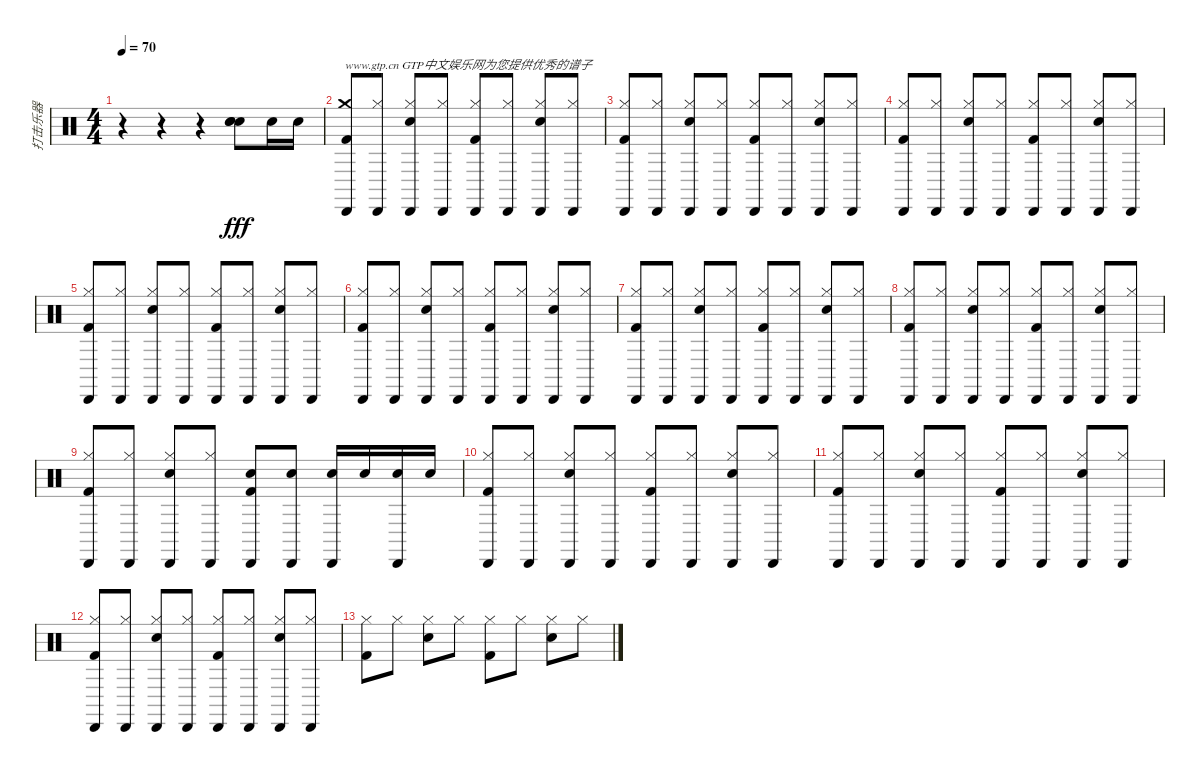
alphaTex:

\track ("打击乐器" "打击乐器") {instrument percussion}
\staff {score}
\articulation defaults
\ts (4 4)
\tempo 70
\clef neutral
\ks c
r.4{dy fff} r.4 r.4 ("Electric Snare (hit)" "Electric Snare (hit)" "Electric Snare (hit)").8 "Electric Snare (hit)".16 "Electric Snare (hit)".16 |
("Crash medium (hit)" "Kick (hit) 2" "Cabasa (hit)").8{txt "www.gtp.cn GTP中文娱乐网为您提供优秀的谱子"} ("Hi-Hat (closed)" "Cabasa (hit)").8 ("Hi-Hat (closed)" "Snare (hit) 2" "Cabasa (hit)").8 ("Hi-Hat (closed)" "Cabasa (hit)").8 ("Hi-Hat (closed)" "Kick (hit) 2" "Cabasa (hit)").8 ("Hi-Hat (closed)" "Cabasa (hit)").8 ("Hi-Hat (closed)" "Snare (hit) 2" "Cabasa (hit)").8 ("Hi-Hat (closed)" "Cabasa (hit)").8 |
("Hi-Hat (closed)" "Kick (hit) 2" "Cabasa (hit)").8 ("Hi-Hat (closed)" "Cabasa (hit)").8 ("Hi-Hat (closed)" "Snare (hit) 2" "Cabasa (hit)").8 ("Hi-Hat (closed)" "Cabasa (hit)").8 ("Hi-Hat (closed)" "Kick (hit) 2" "Cabasa (hit)").8 ("Hi-Hat (closed)" "Cabasa (hit)").8 ("Hi-Hat (closed)" "Snare (hit) 2" "Cabasa (hit)").8 ("Hi-Hat (closed)" "Cabasa (hit)").8 |
("Hi-Hat (closed)" "Kick (hit) 2" "Cabasa (hit)").8 ("Hi-Hat (closed)" "Cabasa (hit)").8 ("Hi-Hat (closed)" "Snare (hit) 2" "Cabasa (hit)").8 ("Hi-Hat (closed)" "Cabasa (hit)").8 ("Hi-Hat (closed)" "Kick (hit) 2" "Cabasa (hit)").8 ("Hi-Hat (closed)" "Cabasa (hit)").8 ("Hi-Hat (closed)" "Snare (hit) 2" "Cabasa (hit)").8 ("Hi-Hat (closed)" "Cabasa (hit)").8 |
("Hi-Hat (closed)" "Kick (hit) 2" "Cabasa (hit)").8 ("Hi-Hat (closed)" "Cabasa (hit)").8 ("Hi-Hat (closed)" "Snare (hit) 2" "Cabasa (hit)").8 ("Hi-Hat (closed)" "Cabasa (hit)").8 ("Hi-Hat (closed)" "Kick (hit) 2" "Cabasa (hit)").8 ("Hi-Hat (closed)" "Cabasa (hit)").8 ("Hi-Hat (closed)" "Snare (hit) 2" "Cabasa (hit)").8 ("Hi-Hat (closed)" "Cabasa (hit)").8 |
("Hi-Hat (closed)" "Kick (hit) 2" "Cabasa (hit)").8 ("Hi-Hat (closed)" "Cabasa (hit)").8 ("Hi-Hat (closed)" "Snare (hit) 2" "Cabasa (hit)").8 ("Hi-Hat (closed)" "Cabasa (hit)").8 ("Hi-Hat (closed)" "Kick (hit) 2" "Cabasa (hit)").8 ("Hi-Hat (closed)" "Cabasa (hit)").8 ("Hi-Hat (closed)" "Snare (hit) 2" "Cabasa (hit)").8 ("Hi-Hat (closed)" "Cabasa (hit)").8 |
("Hi-Hat (closed)" "Kick (hit) 2" "Cabasa (hit)").8 ("Hi-Hat (closed)" "Cabasa (hit)").8 ("Hi-Hat (closed)" "Snare (hit) 2" "Cabasa (hit)").8 ("Hi-Hat (closed)" "Cabasa (hit)").8 ("Hi-Hat (closed)" "Kick (hit) 2" "Cabasa (hit)").8 ("Hi-Hat (closed)" "Cabasa (hit)").8 ("Hi-Hat (closed)" "Snare (hit) 2" "Cabasa (hit)").8 ("Hi-Hat (closed)" "Cabasa (hit)").8 |
("Hi-Hat (closed)" "Kick (hit) 2" "Cabasa (hit)").8 ("Hi-Hat (closed)" "Cabasa (hit)").8 ("Hi-Hat (closed)" "Snare (hit) 2" "Cabasa (hit)").8 ("Hi-Hat (closed)" "Cabasa (hit)").8 ("Hi-Hat (closed)" "Kick (hit) 2" "Cabasa (hit)").8 ("Hi-Hat (closed)" "Cabasa (hit)").8 ("Hi-Hat (closed)" "Snare (hit) 2" "Cabasa (hit)").8 ("Hi-Hat (closed)" "Cabasa (hit)").8 |
("Hi-Hat (closed)" "Kick (hit) 2" "Cabasa (hit)").8 ("Hi-Hat (closed)" "Cabasa (hit)").8 ("Hi-Hat (closed)" "Snare (hit) 2" "Cabasa (hit)").8 ("Hi-Hat (closed)" "Cabasa (hit)").8 ("Electric Snare (hit)" "Kick (hit) 2" "Cabasa (hit)").8 ("Electric Snare (hit)" "Cabasa (hit)").8 ("Snare (hit) 2" "Cabasa (hit)").16 "Snare (hit) 2".16 ("Snare (hit) 2" "Cabasa (hit)").16 "Snare (hit) 2".16 |
("Hi-Hat (closed)" "Kick (hit) 2" "Cabasa (hit)").8 ("Hi-Hat (closed)" "Cabasa (hit)").8 ("Hi-Hat (closed)" "Snare (hit) 2" "Cabasa (hit)").8 ("Hi-Hat (closed)" "Cabasa (hit)").8 ("Hi-Hat (closed)" "Kick (hit) 2" "Cabasa (hit)").8 ("Hi-Hat (closed)" "Cabasa (hit)").8 ("Hi-Hat (closed)" "Snare (hit) 2" "Cabasa (hit)").8 ("Hi-Hat (closed)" "Cabasa (hit)").8 |
("Hi-Hat (closed)" "Kick (hit) 2" "Cabasa (hit)").8 ("Hi-Hat (closed)" "Cabasa (hit)").8 ("Hi-Hat (closed)" "Snare (hit) 2" "Cabasa (hit)").8 ("Hi-Hat (closed)" "Cabasa (hit)").8 ("Hi-Hat (closed)" "Kick (hit) 2" "Cabasa (hit)").8 ("Hi-Hat (closed)" "Cabasa (hit)").8 ("Hi-Hat (closed)" "Snare (hit) 2" "Cabasa (hit)").8 ("Hi-Hat (closed)" "Cabasa (hit)").8 |
("Hi-Hat (closed)" "Kick (hit) 2" "Cabasa (hit)").8 ("Hi-Hat (closed)" "Cabasa (hit)").8 ("Hi-Hat (closed)" "Snare (hit) 2" "Cabasa (hit)").8 ("Hi-Hat (closed)" "Cabasa (hit)").8 ("Hi-Hat (closed)" "Kick (hit) 2" "Cabasa (hit)").8 ("Hi-Hat (closed)" "Cabasa (hit)").8 ("Hi-Hat (closed)" "Snare (hit) 2" "Cabasa (hit)").8 ("Hi-Hat (closed)" "Cabasa (hit)").8 |
("Hi-Hat (closed)" "Kick (hit) 2").8 "Hi-Hat (closed)".8 ("Hi-Hat (closed)" "Snare (hit) 2").8 "Hi-Hat (closed)".8 ("Hi-Hat (closed)" "Kick (hit) 2").8 "Hi-Hat (closed)".8 ("Hi-Hat (closed)" "Snare (hit) 2").8 "Hi-Hat (closed)".8
